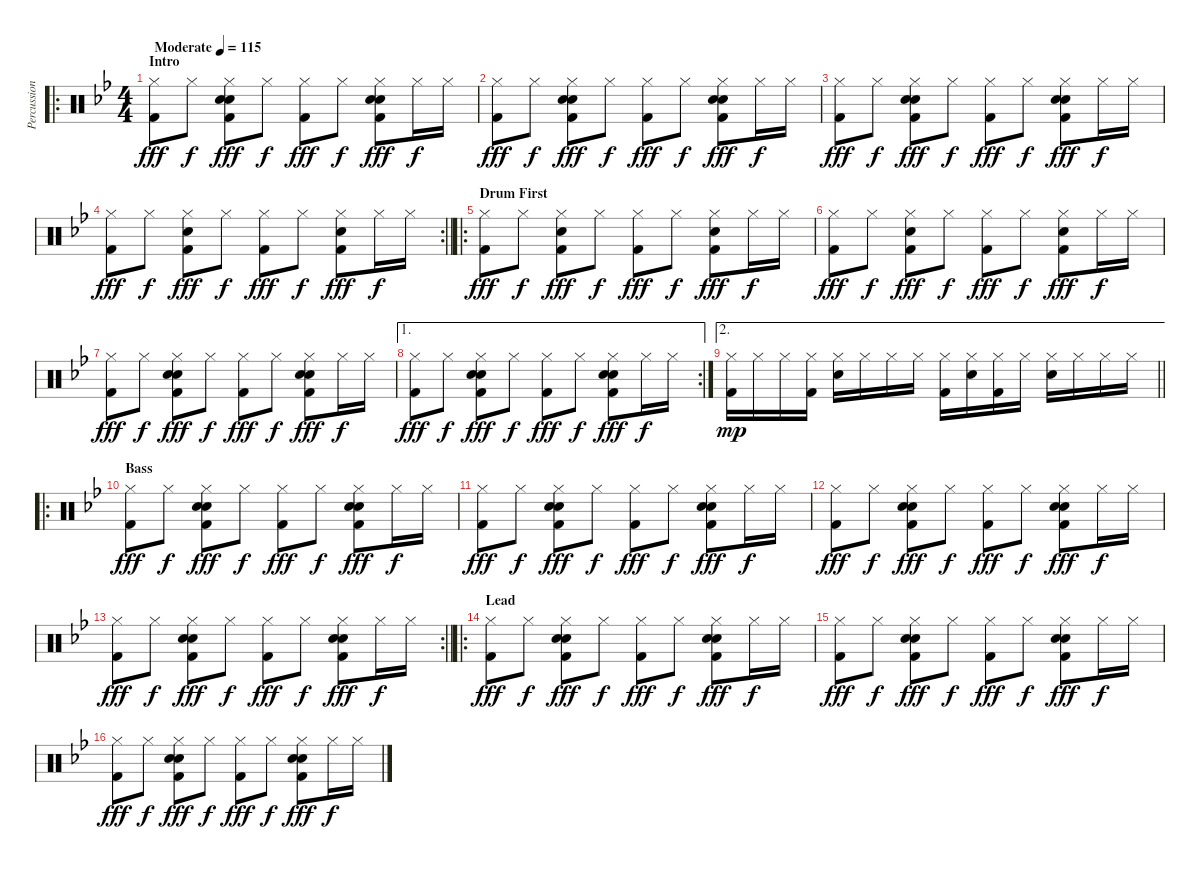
\track ("Percussions" "Percussion") {instrument percussion}
\staff {score}
\articulation defaults
\ro
\ts (4 4)
\section ("" "Intro")
\tempo (115 "Moderate")
\clef neutral
\ks gminor
("Hi-Hat (closed)" "Kick (hit) 2").8{dy fff} "Hi-Hat (closed)".8{dy f} ("Hi-Hat (closed)" "Hand Clap (hit)" "Electric Snare (hit)" "Kick (hit) 2").8{dy fff} "Hi-Hat (closed)".8{dy f} ("Hi-Hat (closed)" "Kick (hit) 2").8{dy fff} "Hi-Hat (closed)".8{dy f} ("Hi-Hat (closed)" "Hand Clap (hit)" "Electric Snare (hit)" "Kick (hit) 2").8{dy fff} "Hi-Hat (closed)".16{dy f} "Hi-Hat (closed)".16 |
("Hi-Hat (closed)" "Kick (hit) 2").8{dy fff} "Hi-Hat (closed)".8{dy f} ("Hi-Hat (closed)" "Hand Clap (hit)" "Electric Snare (hit)" "Kick (hit) 2").8{dy fff} "Hi-Hat (closed)".8{dy f} ("Hi-Hat (closed)" "Kick (hit) 2").8{dy fff} "Hi-Hat (closed)".8{dy f} ("Hi-Hat (closed)" "Hand Clap (hit)" "Electric Snare (hit)" "Kick (hit) 2").8{dy fff} "Hi-Hat (closed)".16{dy f} "Hi-Hat (closed)".16 |
("Hi-Hat (closed)" "Kick (hit) 2").8{dy fff} "Hi-Hat (closed)".8{dy f} ("Hi-Hat (closed)" "Hand Clap (hit)" "Electric Snare (hit)" "Kick (hit) 2").8{dy fff} "Hi-Hat (closed)".8{dy f} ("Hi-Hat (closed)" "Kick (hit) 2").8{dy fff} "Hi-Hat (closed)".8{dy f} ("Hi-Hat (closed)" "Hand Clap (hit)" "Electric Snare (hit)" "Kick (hit) 2").8{dy fff} "Hi-Hat (closed)".16{dy f} "Hi-Hat (closed)".16 |
\rc 2
\barLineRight lightlight
("Hi-Hat (closed)" "Kick (hit) 2").8{dy fff} "Hi-Hat (closed)".8{dy f} ("Hi-Hat (closed)" "Hand Clap (hit)" "Kick (hit) 2").8{dy fff} "Hi-Hat (closed)".8{dy f} ("Hi-Hat (closed)" "Kick (hit) 2").8{dy fff} "Hi-Hat (closed)".8{dy f} ("Hi-Hat (closed)" "Hand Clap (hit)" "Kick (hit) 2").8{dy fff} "Hi-Hat (closed)".16{dy f} "Hi-Hat (closed)".16 |
\ro
\section ("" "Drum First")
("Hi-Hat (closed)" "Kick (hit) 2").8{dy fff} "Hi-Hat (closed)".8{dy f} ("Hi-Hat (closed)" "Hand Clap (hit)" "Kick (hit) 2").8{dy fff} "Hi-Hat (closed)".8{dy f} ("Hi-Hat (closed)" "Kick (hit) 2").8{dy fff} "Hi-Hat (closed)".8{dy f} ("Hi-Hat (closed)" "Hand Clap (hit)" "Kick (hit) 2").8{dy fff} "Hi-Hat (closed)".16{dy f} "Hi-Hat (closed)".16 |
("Hi-Hat (closed)" "Kick (hit) 2").8{dy fff} "Hi-Hat (closed)".8{dy f} ("Hi-Hat (closed)" "Hand Clap (hit)" "Kick (hit) 2").8{dy fff} "Hi-Hat (closed)".8{dy f} ("Hi-Hat (closed)" "Kick (hit) 2").8{dy fff} "Hi-Hat (closed)".8{dy f} ("Hi-Hat (closed)" "Hand Clap (hit)" "Kick (hit) 2").8{dy fff} "Hi-Hat (closed)".16{dy f} "Hi-Hat (closed)".16 |
("Hi-Hat (closed)" "Kick (hit) 2").8{dy fff} "Hi-Hat (closed)".8{dy f} ("Hi-Hat (closed)" "Hand Clap (hit)" "Electric Snare (hit)" "Kick (hit) 2").8{dy fff} "Hi-Hat (closed)".8{dy f} ("Hi-Hat (closed)" "Kick (hit) 2").8{dy fff} "Hi-Hat (closed)".8{dy f} ("Hi-Hat (closed)" "Hand Clap (hit)" "Electric Snare (hit)" "Kick (hit) 2").8{dy fff} "Hi-Hat (closed)".16{dy f} "Hi-Hat (closed)".16 |
\ae 1
\rc 2
("Hi-Hat (closed)" "Kick (hit) 2").8{dy fff} "Hi-Hat (closed)".8{dy f} ("Hi-Hat (closed)" "Hand Clap (hit)" "Electric Snare (hit)" "Kick (hit) 2").8{dy fff} "Hi-Hat (closed)".8{dy f} ("Hi-Hat (closed)" "Kick (hit) 2").8{dy fff} "Hi-Hat (closed)".8{dy f} ("Hi-Hat (closed)" "Hand Clap (hit)" "Electric Snare (hit)" "Kick (hit) 2").8{dy fff} "Hi-Hat (closed)".16{dy f} "Hi-Hat (closed)".16 |
\ae 2
\barLineRight lightlight
("Hi-Hat (closed)" "Kick (hit) 2").16{dy mp} "Hi-Hat (closed)".16 "Hi-Hat (closed)".16 ("Hi-Hat (closed)" "Kick (hit) 2").16 ("Hi-Hat (closed)" "Electric Snare (hit)").16 "Hi-Hat (closed)".16 "Hi-Hat (closed)".16 "Hi-Hat (closed)".16 ("Hi-Hat (closed)" "Kick (hit) 2").16 ("Hi-Hat (closed)" "Electric Snare (hit)").16 ("Hi-Hat (closed)" "Kick (hit) 2").16 "Hi-Hat (closed)".16 ("Hi-Hat (closed)" "Electric Snare (hit)").16 "Hi-Hat (closed)".16 "Hi-Hat (closed)".16 "Hi-Hat (closed)".16 |
\ro
\section ("" "Bass")
("Hi-Hat (closed)" "Kick (hit) 2").8{dy fff} "Hi-Hat (closed)".8{dy f} ("Hi-Hat (closed)" "Hand Clap (hit)" "Electric Snare (hit)" "Kick (hit) 2").8{dy fff} "Hi-Hat (closed)".8{dy f} ("Hi-Hat (closed)" "Kick (hit) 2").8{dy fff} "Hi-Hat (closed)".8{dy f} ("Hi-Hat (closed)" "Hand Clap (hit)" "Electric Snare (hit)" "Kick (hit) 2").8{dy fff} "Hi-Hat (closed)".16{dy f} "Hi-Hat (closed)".16 |
("Hi-Hat (closed)" "Kick (hit) 2").8{dy fff} "Hi-Hat (closed)".8{dy f} ("Hi-Hat (closed)" "Hand Clap (hit)" "Electric Snare (hit)" "Kick (hit) 2").8{dy fff} "Hi-Hat (closed)".8{dy f} ("Hi-Hat (closed)" "Kick (hit) 2").8{dy fff} "Hi-Hat (closed)".8{dy f} ("Hi-Hat (closed)" "Hand Clap (hit)" "Electric Snare (hit)" "Kick (hit) 2").8{dy fff} "Hi-Hat (closed)".16{dy f} "Hi-Hat (closed)".16 |
("Hi-Hat (closed)" "Kick (hit) 2").8{dy fff} "Hi-Hat (closed)".8{dy f} ("Hi-Hat (closed)" "Hand Clap (hit)" "Electric Snare (hit)" "Kick (hit) 2").8{dy fff} "Hi-Hat (closed)".8{dy f} ("Hi-Hat (closed)" "Kick (hit) 2").8{dy fff} "Hi-Hat (closed)".8{dy f} ("Hi-Hat (closed)" "Hand Clap (hit)" "Electric Snare (hit)" "Kick (hit) 2").8{dy fff} "Hi-Hat (closed)".16{dy f} "Hi-Hat (closed)".16 |
\rc 2
\barLineRight lightlight
("Hi-Hat (closed)" "Kick (hit) 2").8{dy fff} "Hi-Hat (closed)".8{dy f} ("Hi-Hat (closed)" "Hand Clap (hit)" "Electric Snare (hit)" "Kick (hit) 2").8{dy fff} "Hi-Hat (closed)".8{dy f} ("Hi-Hat (closed)" "Kick (hit) 2").8{dy fff} "Hi-Hat (closed)".8{dy f} ("Hi-Hat (closed)" "Hand Clap (hit)" "Electric Snare (hit)" "Kick (hit) 2").8{dy fff} "Hi-Hat (closed)".16{dy f} "Hi-Hat (closed)".16 |
\ro
\section ("" "Lead")
("Hi-Hat (closed)" "Kick (hit) 2").8{dy fff} "Hi-Hat (closed)".8{dy f} ("Hi-Hat (closed)" "Hand Clap (hit)" "Electric Snare (hit)" "Kick (hit) 2").8{dy fff} "Hi-Hat (closed)".8{dy f} ("Hi-Hat (closed)" "Kick (hit) 2").8{dy fff} "Hi-Hat (closed)".8{dy f} ("Hi-Hat (closed)" "Hand Clap (hit)" "Electric Snare (hit)" "Kick (hit) 2").8{dy fff} "Hi-Hat (closed)".16{dy f} "Hi-Hat (closed)".16 |
("Hi-Hat (closed)" "Kick (hit) 2").8{dy fff} "Hi-Hat (closed)".8{dy f} ("Hi-Hat (closed)" "Hand Clap (hit)" "Electric Snare (hit)" "Kick (hit) 2").8{dy fff} "Hi-Hat (closed)".8{dy f} ("Hi-Hat (closed)" "Kick (hit) 2").8{dy fff} "Hi-Hat (closed)".8{dy f} ("Hi-Hat (closed)" "Hand Clap (hit)" "Electric Snare (hit)" "Kick (hit) 2").8{dy fff} "Hi-Hat (closed)".16{dy f} "Hi-Hat (closed)".16 |
("Hi-Hat (closed)" "Kick (hit) 2").8{dy fff} "Hi-Hat (closed)".8{dy f} ("Hi-Hat (closed)" "Hand Clap (hit)" "Electric Snare (hit)" "Kick (hit) 2").8{dy fff} "Hi-Hat (closed)".8{dy f} ("Hi-Hat (closed)" "Kick (hit) 2").8{dy fff} "Hi-Hat (closed)".8{dy f} ("Hi-Hat (closed)" "Hand Clap (hit)" "Electric Snare (hit)" "Kick (hit) 2").8{dy fff} "Hi-Hat (closed)".16{dy f} "Hi-Hat (closed)".16
